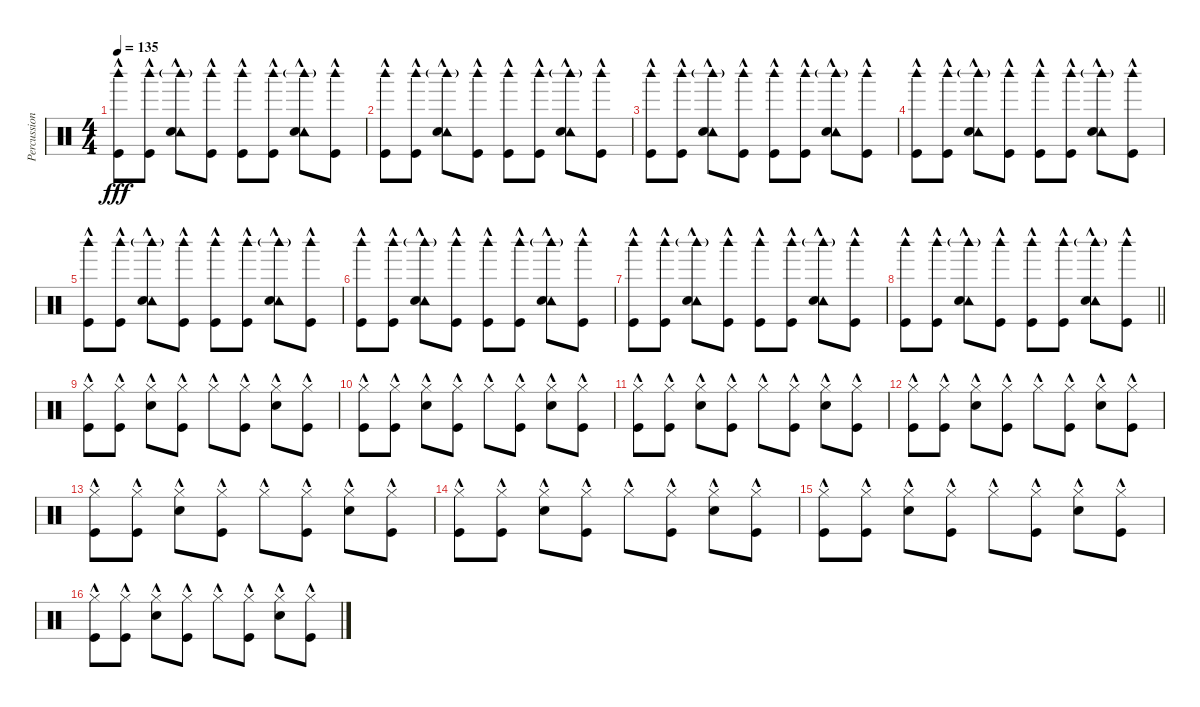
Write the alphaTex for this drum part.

\track ("Percussions" "Percussion") {instrument percussion}
\staff {score}
\articulation defaults
\ts (4 4)
\tempo 135
\clef neutral
\ks c
("Woodblock high (hit)" "Kick (hit)"{hac}).8{dy fff} ("Woodblock high (hit)" "Kick (hit)"{hac}).8 ("Woodblock high (hit)"{g} "Tambourine (hit)"{hac} "Electric Snare (hit)"{hac}).8 ("Woodblock high (hit)" "Kick (hit)"{hac}).8 ("Woodblock high (hit)" "Kick (hit)"{hac}).8 ("Woodblock high (hit)" "Kick (hit)"{hac}).8 ("Woodblock high (hit)"{g} "Tambourine (hit)"{hac} "Electric Snare (hit)"{hac}).8 ("Woodblock high (hit)" "Kick (hit)"{hac}).8 |
("Woodblock high (hit)" "Kick (hit)"{hac}).8 ("Woodblock high (hit)" "Kick (hit)"{hac}).8 ("Woodblock high (hit)"{g} "Tambourine (hit)"{hac} "Electric Snare (hit)"{hac}).8 ("Woodblock high (hit)" "Kick (hit)"{hac}).8 ("Woodblock high (hit)" "Kick (hit)"{hac}).8 ("Woodblock high (hit)" "Kick (hit)"{hac}).8 ("Woodblock high (hit)"{g} "Tambourine (hit)"{hac} "Electric Snare (hit)"{hac}).8 ("Woodblock high (hit)" "Kick (hit)"{hac}).8 |
("Woodblock high (hit)" "Kick (hit)"{hac}).8 ("Woodblock high (hit)" "Kick (hit)"{hac}).8 ("Woodblock high (hit)"{g} "Tambourine (hit)"{hac} "Electric Snare (hit)"{hac}).8 ("Woodblock high (hit)" "Kick (hit)"{hac}).8 ("Woodblock high (hit)" "Kick (hit)"{hac}).8 ("Woodblock high (hit)" "Kick (hit)"{hac}).8 ("Woodblock high (hit)"{g} "Tambourine (hit)"{hac} "Electric Snare (hit)"{hac}).8 ("Woodblock high (hit)" "Kick (hit)"{hac}).8 |
("Woodblock high (hit)" "Kick (hit)"{hac}).8 ("Woodblock high (hit)" "Kick (hit)"{hac}).8 ("Woodblock high (hit)"{g} "Tambourine (hit)"{hac} "Electric Snare (hit)"{hac}).8 ("Woodblock high (hit)" "Kick (hit)"{hac}).8 ("Woodblock high (hit)" "Kick (hit)"{hac}).8 ("Woodblock high (hit)" "Kick (hit)"{hac}).8 ("Woodblock high (hit)"{g} "Tambourine (hit)"{hac} "Electric Snare (hit)"{hac}).8 ("Woodblock high (hit)" "Kick (hit)"{hac}).8 |
("Woodblock high (hit)" "Kick (hit)"{hac}).8 ("Woodblock high (hit)" "Kick (hit)"{hac}).8 ("Woodblock high (hit)"{g} "Tambourine (hit)"{hac} "Electric Snare (hit)"{hac}).8 ("Woodblock high (hit)" "Kick (hit)"{hac}).8 ("Woodblock high (hit)" "Kick (hit)"{hac}).8 ("Woodblock high (hit)" "Kick (hit)"{hac}).8 ("Woodblock high (hit)"{g} "Tambourine (hit)"{hac} "Electric Snare (hit)"{hac}).8 ("Woodblock high (hit)" "Kick (hit)"{hac}).8 |
("Woodblock high (hit)" "Kick (hit)"{hac}).8 ("Woodblock high (hit)" "Kick (hit)"{hac}).8 ("Woodblock high (hit)"{g} "Tambourine (hit)"{hac} "Electric Snare (hit)"{hac}).8 ("Woodblock high (hit)" "Kick (hit)"{hac}).8 ("Woodblock high (hit)" "Kick (hit)"{hac}).8 ("Woodblock high (hit)" "Kick (hit)"{hac}).8 ("Woodblock high (hit)"{g} "Tambourine (hit)"{hac} "Electric Snare (hit)"{hac}).8 ("Woodblock high (hit)" "Kick (hit)"{hac}).8 |
("Woodblock high (hit)" "Kick (hit)"{hac}).8 ("Woodblock high (hit)" "Kick (hit)"{hac}).8 ("Woodblock high (hit)"{g} "Tambourine (hit)"{hac} "Electric Snare (hit)"{hac}).8 ("Woodblock high (hit)" "Kick (hit)"{hac}).8 ("Woodblock high (hit)" "Kick (hit)"{hac}).8 ("Woodblock high (hit)" "Kick (hit)"{hac}).8 ("Woodblock high (hit)"{g} "Tambourine (hit)"{hac} "Electric Snare (hit)"{hac}).8 ("Woodblock high (hit)" "Kick (hit)"{hac}).8 |
\barLineRight lightlight
("Woodblock high (hit)" "Kick (hit)"{hac}).8 ("Woodblock high (hit)" "Kick (hit)"{hac}).8 ("Woodblock high (hit)"{g} "Tambourine (hit)"{hac} "Electric Snare (hit)"{hac}).8 ("Woodblock high (hit)" "Kick (hit)"{hac}).8 ("Woodblock high (hit)" "Kick (hit)"{hac}).8 ("Woodblock high (hit)" "Kick (hit)"{hac}).8 ("Woodblock high (hit)"{g} "Tambourine (hit)"{hac} "Electric Snare (hit)"{hac}).8 ("Woodblock high (hit)" "Kick (hit)"{hac}).8 |
("Hi-Hat (closed)"{hac} "Kick (hit)"{hac}).8 ("Hi-Hat (closed)"{hac} "Kick (hit)"{hac}).8 ("Hi-Hat (closed)"{hac} "Electric Snare (hit)"{hac}).8 ("Hi-Hat (closed)"{hac} "Kick (hit)"{hac}).8 "Hi-Hat (closed)"{hac}.8 ("Hi-Hat (closed)"{hac} "Kick (hit)"{hac}).8 ("Hi-Hat (closed)"{hac} "Electric Snare (hit)"{hac}).8 ("Hi-Hat (closed)"{hac} "Kick (hit)"{hac}).8 |
("Hi-Hat (closed)"{hac} "Kick (hit)"{hac}).8 ("Hi-Hat (closed)"{hac} "Kick (hit)"{hac}).8 ("Hi-Hat (closed)"{hac} "Electric Snare (hit)"{hac}).8 ("Hi-Hat (closed)"{hac} "Kick (hit)"{hac}).8 "Hi-Hat (closed)"{hac}.8 ("Hi-Hat (closed)"{hac} "Kick (hit)"{hac}).8 ("Hi-Hat (closed)"{hac} "Electric Snare (hit)"{hac}).8 ("Hi-Hat (closed)"{hac} "Kick (hit)"{hac}).8 |
("Hi-Hat (closed)"{hac} "Kick (hit)"{hac}).8 ("Hi-Hat (closed)"{hac} "Kick (hit)"{hac}).8 ("Hi-Hat (closed)"{hac} "Electric Snare (hit)"{hac}).8 ("Hi-Hat (closed)"{hac} "Kick (hit)"{hac}).8 "Hi-Hat (closed)"{hac}.8 ("Hi-Hat (closed)"{hac} "Kick (hit)"{hac}).8 ("Hi-Hat (closed)"{hac} "Electric Snare (hit)"{hac}).8 ("Hi-Hat (closed)"{hac} "Kick (hit)"{hac}).8 |
("Hi-Hat (closed)"{hac} "Kick (hit)"{hac}).8 ("Hi-Hat (closed)"{hac} "Kick (hit)"{hac}).8 ("Hi-Hat (closed)"{hac} "Electric Snare (hit)"{hac}).8 ("Hi-Hat (closed)"{hac} "Kick (hit)"{hac}).8 "Hi-Hat (closed)"{hac}.8 ("Hi-Hat (closed)"{hac} "Kick (hit)"{hac}).8 ("Hi-Hat (closed)"{hac} "Electric Snare (hit)"{hac}).8 ("Hi-Hat (closed)"{hac} "Kick (hit)"{hac}).8 |
("Hi-Hat (closed)"{hac} "Kick (hit)"{hac}).8 ("Hi-Hat (closed)"{hac} "Kick (hit)"{hac}).8 ("Hi-Hat (closed)"{hac} "Electric Snare (hit)"{hac}).8 ("Hi-Hat (closed)"{hac} "Kick (hit)"{hac}).8 "Hi-Hat (closed)"{hac}.8 ("Hi-Hat (closed)"{hac} "Kick (hit)"{hac}).8 ("Hi-Hat (closed)"{hac} "Electric Snare (hit)"{hac}).8 ("Hi-Hat (closed)"{hac} "Kick (hit)"{hac}).8 |
("Hi-Hat (closed)"{hac} "Kick (hit)"{hac}).8 ("Hi-Hat (closed)"{hac} "Kick (hit)"{hac}).8 ("Hi-Hat (closed)"{hac} "Electric Snare (hit)"{hac}).8 ("Hi-Hat (closed)"{hac} "Kick (hit)"{hac}).8 "Hi-Hat (closed)"{hac}.8 ("Hi-Hat (closed)"{hac} "Kick (hit)"{hac}).8 ("Hi-Hat (closed)"{hac} "Electric Snare (hit)"{hac}).8 ("Hi-Hat (closed)"{hac} "Kick (hit)"{hac}).8 |
("Hi-Hat (closed)"{hac} "Kick (hit)"{hac}).8 ("Hi-Hat (closed)"{hac} "Kick (hit)"{hac}).8 ("Hi-Hat (closed)"{hac} "Electric Snare (hit)"{hac}).8 ("Hi-Hat (closed)"{hac} "Kick (hit)"{hac}).8 "Hi-Hat (closed)"{hac}.8 ("Hi-Hat (closed)"{hac} "Kick (hit)"{hac}).8 ("Hi-Hat (closed)"{hac} "Electric Snare (hit)"{hac}).8 ("Hi-Hat (closed)"{hac} "Kick (hit)"{hac}).8 |
("Hi-Hat (closed)"{hac} "Kick (hit)"{hac}).8 ("Hi-Hat (closed)"{hac} "Kick (hit)"{hac}).8 ("Hi-Hat (closed)"{hac} "Electric Snare (hit)"{hac}).8 ("Hi-Hat (closed)"{hac} "Kick (hit)"{hac}).8 "Hi-Hat (closed)"{hac}.8 ("Hi-Hat (closed)"{hac} "Kick (hit)"{hac}).8 ("Hi-Hat (closed)"{hac} "Electric Snare (hit)"{hac}).8 ("Hi-Hat (closed)"{hac} "Kick (hit)"{hac}).8
